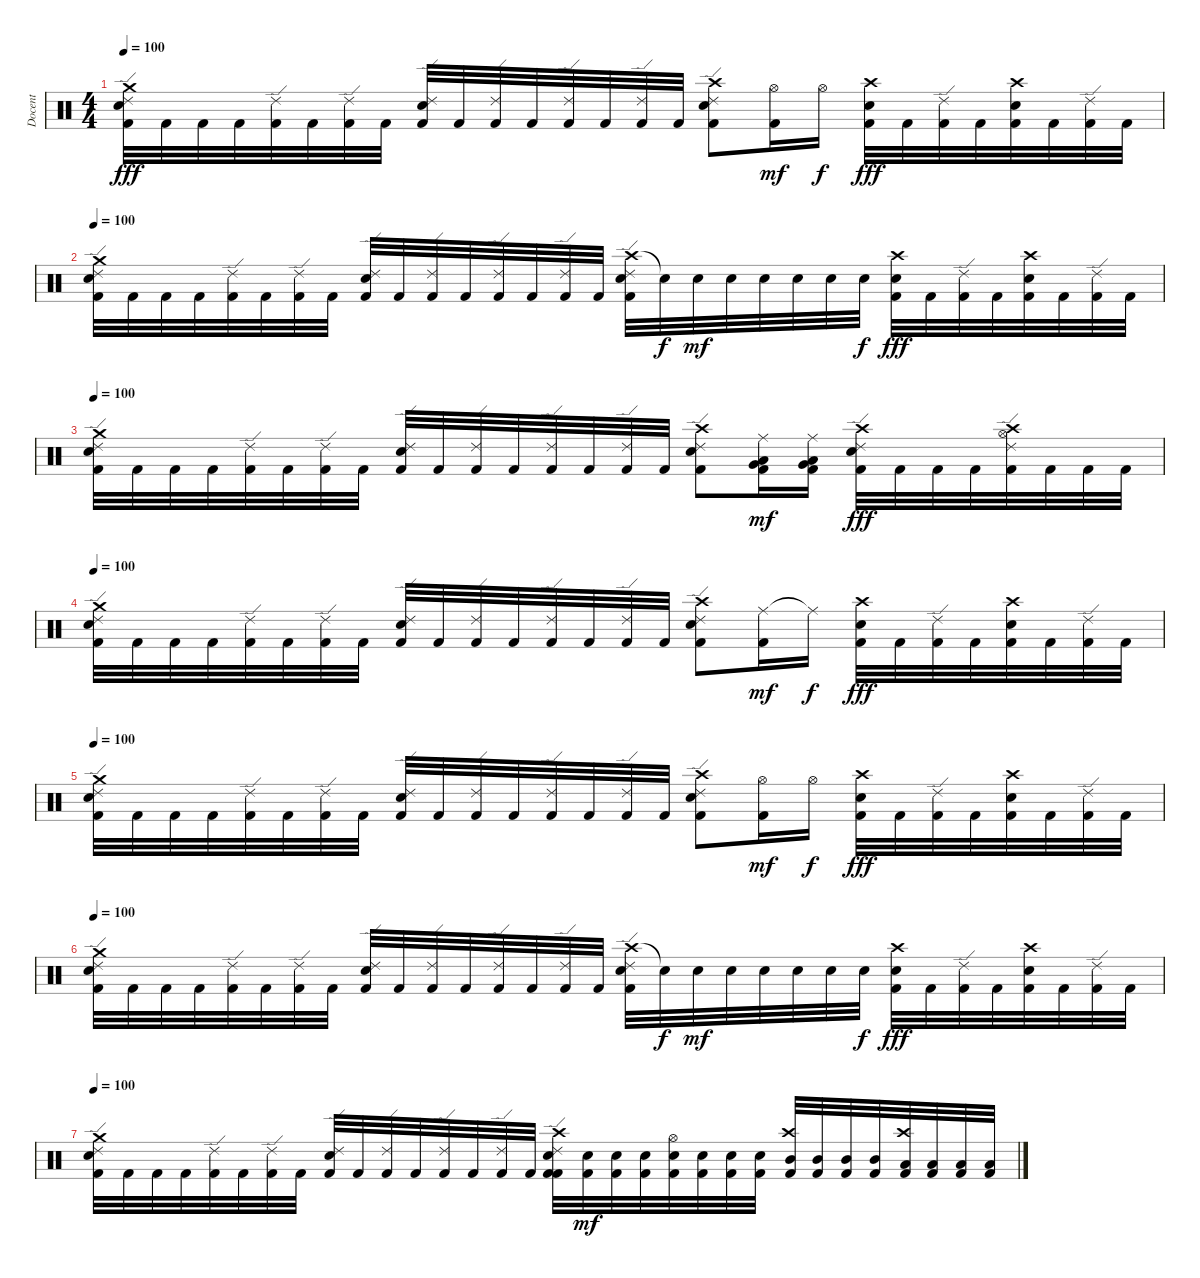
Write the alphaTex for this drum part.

\track ("Docent" "Docent") {instrument percussion}
\staff {score}
\articulation defaults
\ts (4 4)
\tempo 100
\clef neutral
\ks c
("Crash medium (hit)" "Ride (edge) 2" "Electric Snare (hit)" "Kick (hit) 2").32{dy fff} "Kick (hit) 2".32 "Kick (hit) 2".32 "Kick (hit) 2".32 ("Ride (edge) 2" "Kick (hit) 2").32 "Kick (hit) 2".32 ("Ride (edge) 2" "Kick (hit) 2").32 "Kick (hit) 2".32 ("Ride (edge) 2" "Electric Snare (hit)" "Kick (hit) 2").32 "Kick (hit) 2".32 ("Ride (edge) 2" "Kick (hit) 2").32 "Kick (hit) 2".32 ("Ride (edge) 2" "Kick (hit) 2").32 "Kick (hit) 2".32 ("Ride (edge) 2" "Kick (hit) 2").32 "Kick (hit) 2".32 ("Crash high (hit)" "Ride (edge) 2" "Electric Snare (hit)" "Kick (hit) 2").8 ("Hi-Hat (open)" "Kick (hit) 2").16{dy mf} "Hi-Hat (open)".16{dy f} ("Crash high (hit)" "Electric Snare (hit)" "Kick (hit) 2").32{dy fff} "Kick (hit) 2".32 ("Ride (edge) 2" "Kick (hit) 2").32 "Kick (hit) 2".32 ("Crash high (hit)" "Electric Snare (hit)" "Kick (hit) 2").32 "Kick (hit) 2".32 ("Ride (edge) 2" "Kick (hit) 2").32 "Kick (hit) 2".32 |
\tempo 100
("Crash medium (hit)" "Ride (edge) 2" "Electric Snare (hit)" "Kick (hit) 2").32 "Kick (hit) 2".32 "Kick (hit) 2".32 "Kick (hit) 2".32 ("Ride (edge) 2" "Kick (hit) 2").32 "Kick (hit) 2".32 ("Ride (edge) 2" "Kick (hit) 2").32 "Kick (hit) 2".32 ("Ride (edge) 2" "Electric Snare (hit)" "Kick (hit) 2").32 "Kick (hit) 2".32 ("Ride (edge) 2" "Kick (hit) 2").32 "Kick (hit) 2".32 ("Ride (edge) 2" "Kick (hit) 2").32 "Kick (hit) 2".32 ("Ride (edge) 2" "Kick (hit) 2").32 "Kick (hit) 2".32 ("Crash high (hit)" "Ride (edge) 2" "Electric Snare (hit)" "Kick (hit) 2").32 "Electric Snare (hit)"{t}.32{dy f} "Electric Snare (hit)".32{dy mf} "Electric Snare (hit)".32 "Electric Snare (hit)".32 "Electric Snare (hit)".32 "Electric Snare (hit)".32 "Electric Snare (hit)".32{dy f} ("Crash high (hit)" "Electric Snare (hit)" "Kick (hit) 2").32{dy fff} "Kick (hit) 2".32 ("Ride (edge) 2" "Kick (hit) 2").32 "Kick (hit) 2".32 ("Crash high (hit)" "Electric Snare (hit)" "Kick (hit) 2").32 "Kick (hit) 2".32 ("Ride (edge) 2" "Kick (hit) 2").32 "Kick (hit) 2".32 |
\tempo 100
("Crash medium (hit)" "Ride (edge) 2" "Electric Snare (hit)" "Kick (hit) 2").32 "Kick (hit) 2".32 "Kick (hit) 2".32 "Kick (hit) 2".32 ("Ride (edge) 2" "Kick (hit) 2").32 "Kick (hit) 2".32 ("Ride (edge) 2" "Kick (hit) 2").32 "Kick (hit) 2".32 ("Ride (edge) 2" "Electric Snare (hit)" "Kick (hit) 2").32 "Kick (hit) 2".32 ("Ride (edge) 2" "Kick (hit) 2").32 "Kick (hit) 2".32 ("Ride (edge) 2" "Kick (hit) 2").32 "Kick (hit) 2".32 ("Ride (edge) 2" "Kick (hit) 2").32 "Kick (hit) 2".32 ("Crash high (hit)" "Ride (edge) 2" "Electric Snare (hit)" "Kick (hit) 2").8 ("Ride (middle)" "Low Tom (hit)" "Very Low Tom (hit)" "Kick (hit) 2").16{dy mf} ("Ride (middle)" "Low Tom (hit)" "Very Low Tom (hit)" "Kick (hit) 2").16 ("Crash high (hit)" "Ride (edge) 2" "Electric Snare (hit)" "Kick (hit) 2").32{dy fff} "Kick (hit) 2".32 "Kick (hit) 2".32 "Kick (hit) 2".32 ("Crash high (hit)" "Ride (edge) 2" "Hi-Hat (open)" "Kick (hit) 2").32 "Kick (hit) 2".32 "Kick (hit) 2".32 "Kick (hit) 2".32 |
\tempo 100
("Crash medium (hit)" "Ride (edge) 2" "Electric Snare (hit)" "Kick (hit) 2").32 "Kick (hit) 2".32 "Kick (hit) 2".32 "Kick (hit) 2".32 ("Ride (edge) 2" "Kick (hit) 2").32 "Kick (hit) 2".32 ("Ride (edge) 2" "Kick (hit) 2").32 "Kick (hit) 2".32 ("Ride (edge) 2" "Electric Snare (hit)" "Kick (hit) 2").32 "Kick (hit) 2".32 ("Ride (edge) 2" "Kick (hit) 2").32 "Kick (hit) 2".32 ("Ride (edge) 2" "Kick (hit) 2").32 "Kick (hit) 2".32 ("Ride (edge) 2" "Kick (hit) 2").32 "Kick (hit) 2".32 ("Crash high (hit)" "Ride (edge) 2" "Electric Snare (hit)" "Kick (hit) 2").8 ("Ride (middle)" "Kick (hit) 2").16{dy mf} "Ride (middle)"{t}.16{dy f} ("Crash high (hit)" "Electric Snare (hit)" "Kick (hit) 2").32{dy fff} "Kick (hit) 2".32 ("Ride (edge) 2" "Kick (hit) 2").32 "Kick (hit) 2".32 ("Crash high (hit)" "Electric Snare (hit)" "Kick (hit) 2").32 "Kick (hit) 2".32 ("Ride (edge) 2" "Kick (hit) 2").32 "Kick (hit) 2".32 |
\tempo 100
("Crash medium (hit)" "Ride (edge) 2" "Electric Snare (hit)" "Kick (hit) 2").32 "Kick (hit) 2".32 "Kick (hit) 2".32 "Kick (hit) 2".32 ("Ride (edge) 2" "Kick (hit) 2").32 "Kick (hit) 2".32 ("Ride (edge) 2" "Kick (hit) 2").32 "Kick (hit) 2".32 ("Ride (edge) 2" "Electric Snare (hit)" "Kick (hit) 2").32 "Kick (hit) 2".32 ("Ride (edge) 2" "Kick (hit) 2").32 "Kick (hit) 2".32 ("Ride (edge) 2" "Kick (hit) 2").32 "Kick (hit) 2".32 ("Ride (edge) 2" "Kick (hit) 2").32 "Kick (hit) 2".32 ("Crash high (hit)" "Ride (edge) 2" "Electric Snare (hit)" "Kick (hit) 2").8 ("Hi-Hat (open)" "Kick (hit) 2").16{dy mf} "Hi-Hat (open)".16{dy f} ("Crash high (hit)" "Electric Snare (hit)" "Kick (hit) 2").32{dy fff} "Kick (hit) 2".32 ("Ride (edge) 2" "Kick (hit) 2").32 "Kick (hit) 2".32 ("Crash high (hit)" "Electric Snare (hit)" "Kick (hit) 2").32 "Kick (hit) 2".32 ("Ride (edge) 2" "Kick (hit) 2").32 "Kick (hit) 2".32 |
\tempo 100
("Crash medium (hit)" "Ride (edge) 2" "Electric Snare (hit)" "Kick (hit) 2").32 "Kick (hit) 2".32 "Kick (hit) 2".32 "Kick (hit) 2".32 ("Ride (edge) 2" "Kick (hit) 2").32 "Kick (hit) 2".32 ("Ride (edge) 2" "Kick (hit) 2").32 "Kick (hit) 2".32 ("Ride (edge) 2" "Electric Snare (hit)" "Kick (hit) 2").32 "Kick (hit) 2".32 ("Ride (edge) 2" "Kick (hit) 2").32 "Kick (hit) 2".32 ("Ride (edge) 2" "Kick (hit) 2").32 "Kick (hit) 2".32 ("Ride (edge) 2" "Kick (hit) 2").32 "Kick (hit) 2".32 ("Crash high (hit)" "Ride (edge) 2" "Electric Snare (hit)" "Kick (hit) 2").32 "Electric Snare (hit)"{t}.32{dy f} "Electric Snare (hit)".32{dy mf} "Electric Snare (hit)".32 "Electric Snare (hit)".32 "Electric Snare (hit)".32 "Electric Snare (hit)".32 "Electric Snare (hit)".32{dy f} ("Crash high (hit)" "Electric Snare (hit)" "Kick (hit) 2").32{dy fff} "Kick (hit) 2".32 ("Ride (edge) 2" "Kick (hit) 2").32 "Kick (hit) 2".32 ("Crash high (hit)" "Electric Snare (hit)" "Kick (hit) 2").32 "Kick (hit) 2".32 ("Ride (edge) 2" "Kick (hit) 2").32 "Kick (hit) 2".32 |
\tempo 100
("Crash medium (hit)" "Ride (edge) 2" "Electric Snare (hit)" "Kick (hit) 2").32 "Kick (hit) 2".32 "Kick (hit) 2".32 "Kick (hit) 2".32 ("Ride (edge) 2" "Kick (hit) 2").32 "Kick (hit) 2".32 ("Ride (edge) 2" "Kick (hit) 2").32 "Kick (hit) 2".32 ("Ride (edge) 2" "Electric Snare (hit)" "Kick (hit) 2").32 "Kick (hit) 2".32 ("Ride (edge) 2" "Kick (hit) 2").32 "Kick (hit) 2".32 ("Ride (edge) 2" "Kick (hit) 2").32 "Kick (hit) 2".32 ("Ride (edge) 2" "Kick (hit) 2").32 "Kick (hit) 2".32 ("Crash high (hit)" "Ride (edge) 2" "Electric Snare (hit)" "Kick (hit) 2" "Kick (hit) 2").32 ("Electric Snare (hit)" "Kick (hit) 2").32{dy mf} ("Electric Snare (hit)" "Kick (hit) 2").32 ("Electric Snare (hit)" "Kick (hit) 2").32 ("Hi-Hat (open)" "Electric Snare (hit)" "Kick (hit) 2").32 ("Electric Snare (hit)" "Kick (hit) 2").32 ("Electric Snare (hit)" "Kick (hit) 2").32 ("Electric Snare (hit)" "Kick (hit) 2").32 ("Crash high (hit)" "Mid Tom (hit)" "Kick (hit) 2").32 ("Mid Tom (hit)" "Kick (hit) 2").32 ("Mid Tom (hit)" "Kick (hit) 2").32 ("Mid Tom (hit)" "Kick (hit) 2").32 ("Crash high (hit)" "Low Tom (hit)" "Kick (hit) 2").32 ("Low Tom (hit)" "Kick (hit) 2").32 ("Low Tom (hit)" "Kick (hit) 2").32 ("Low Tom (hit)" "Kick (hit) 2").32
